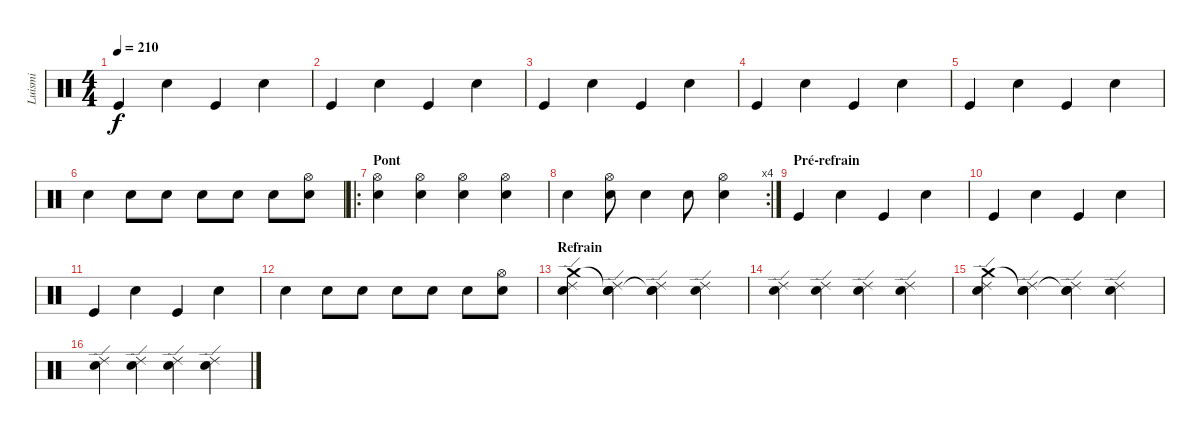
\track ("Luismi" "Luismi") {instrument percussion}
\staff {score}
\articulation defaults
\ts (4 4)
\tempo 210
\clef neutral
\ks c "Kick (hit)".4{dy f} "Electric Snare (hit)".4 "Kick (hit)".4 "Electric Snare (hit)".4
|
"Kick (hit)".4 "Electric Snare (hit)".4 "Kick (hit)".4 "Electric Snare (hit)".4 |
"Kick (hit)".4 "Electric Snare (hit)".4 "Kick (hit)".4 "Electric Snare (hit)".4 |
"Kick (hit)".4 "Electric Snare (hit)".4 "Kick (hit)".4 "Electric Snare (hit)".4 |
"Kick (hit)".4 "Electric Snare (hit)".4 "Kick (hit)".4 "Electric Snare (hit)".4 |
"Electric Snare (hit)".4 "Electric Snare (hit)".8 "Electric Snare (hit)".8 "Electric Snare (hit)".8 "Electric Snare (hit)".8 "Electric Snare (hit)".8 ("Electric Snare (hit)" "Hi-Hat (open)").8 |
\ro
\section ("" "Pont")
("Snare (hit) 2" "Hi-Hat (open)").4 ("Snare (hit) 2" "Hi-Hat (open)").4 ("Snare (hit) 2" "Hi-Hat (open)").4 ("Snare (hit) 2" "Hi-Hat (open)").4 |
\rc 4 "Snare (hit) 2".4
("Electric Snare (hit)" "Hi-Hat (open)").8 "Snare (hit) 2".4 "Snare (hit) 2".8 ("Electric Snare (hit)" "Hi-Hat (open)").4 |
\section ("" "Pré-refrain")
"Kick (hit)".4 "Electric Snare (hit)".4 "Kick (hit)".4 "Electric Snare (hit)".4 |
"Kick (hit)".4 "Electric Snare (hit)".4 "Kick (hit)".4 "Electric Snare (hit)".4 |
"Kick (hit)".4 "Electric Snare (hit)".4 "Kick (hit)".4 "Electric Snare (hit)".4 |
"Electric Snare (hit)".4 "Electric Snare (hit)".8 "Electric Snare (hit)".8 "Electric Snare (hit)".8 "Electric Snare (hit)".8 "Electric Snare (hit)".8 ("Electric Snare (hit)" "Hi-Hat (open)").8 |
\section ("" "Refrain")
("Snare (hit) 2" "Ride (edge) 2" "Crash medium (hit)").4 ("Electric Snare (hit)" "Ride (edge) 2" "Snare (hit)"{t}).4 ("Snare (hit) 2" "Ride (edge) 2" "Snare (hit)"{t}).4 ("Electric Snare (hit)" "Ride (edge) 2").4 |
("Snare (hit) 2" "Ride (edge) 2").4 ("Electric Snare (hit)" "Ride (edge) 2").4 ("Snare (hit) 2" "Ride (edge) 2").4 ("Electric Snare (hit)" "Ride (edge) 2").4 |
("Snare (hit) 2" "Ride (edge) 2" "Crash medium (hit)").4 ("Electric Snare (hit)" "Ride (edge) 2" "Snare (hit)"{t}).4 ("Snare (hit) 2" "Ride (edge) 2" "Snare (hit)"{t}).4 ("Electric Snare (hit)" "Ride (edge) 2").4 |
("Snare (hit) 2" "Ride (edge) 2").4 ("Electric Snare (hit)" "Ride (edge) 2").4 ("Snare (hit) 2" "Ride (edge) 2").4 ("Electric Snare (hit)" "Ride (edge) 2").4
